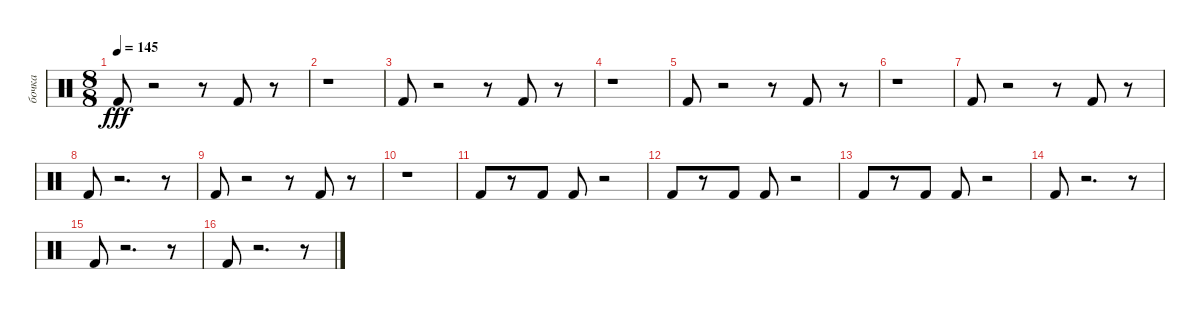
\track ("бочка" "бочка") {instrument percussion}
\staff {score}
\articulation defaults
\ts (8 8)
\tempo 145
\clef neutral
\ks c "Kick (hit) 2".8{dy fff}
r.2 r.8 "Kick (hit) 2".8 r.8 |
r.1 |
"Kick (hit) 2".8 r.2 r.8 "Kick (hit) 2".8 r.8 |
r.1 |
"Kick (hit) 2".8 r.2 r.8 "Kick (hit) 2".8 r.8 |
r.1 |
"Kick (hit) 2".8 r.2 r.8 "Kick (hit) 2".8 r.8 |
"Kick (hit) 2".8 r.2{d} r.8 |
"Kick (hit) 2".8 r.2 r.8 "Kick (hit) 2".8 r.8 |
r.1 |
"Kick (hit) 2".8 r.8 "Kick (hit) 2".8 "Kick (hit) 2".8 r.2 |
"Kick (hit) 2".8 r.8 "Kick (hit) 2".8 "Kick (hit) 2".8 r.2 |
"Kick (hit) 2".8 r.8 "Kick (hit) 2".8 "Kick (hit) 2".8 r.2 |
"Kick (hit) 2".8 r.2{d} r.8 |
"Kick (hit) 2".8 r.2{d} r.8 |
"Kick (hit) 2".8 r.2{d} r.8
